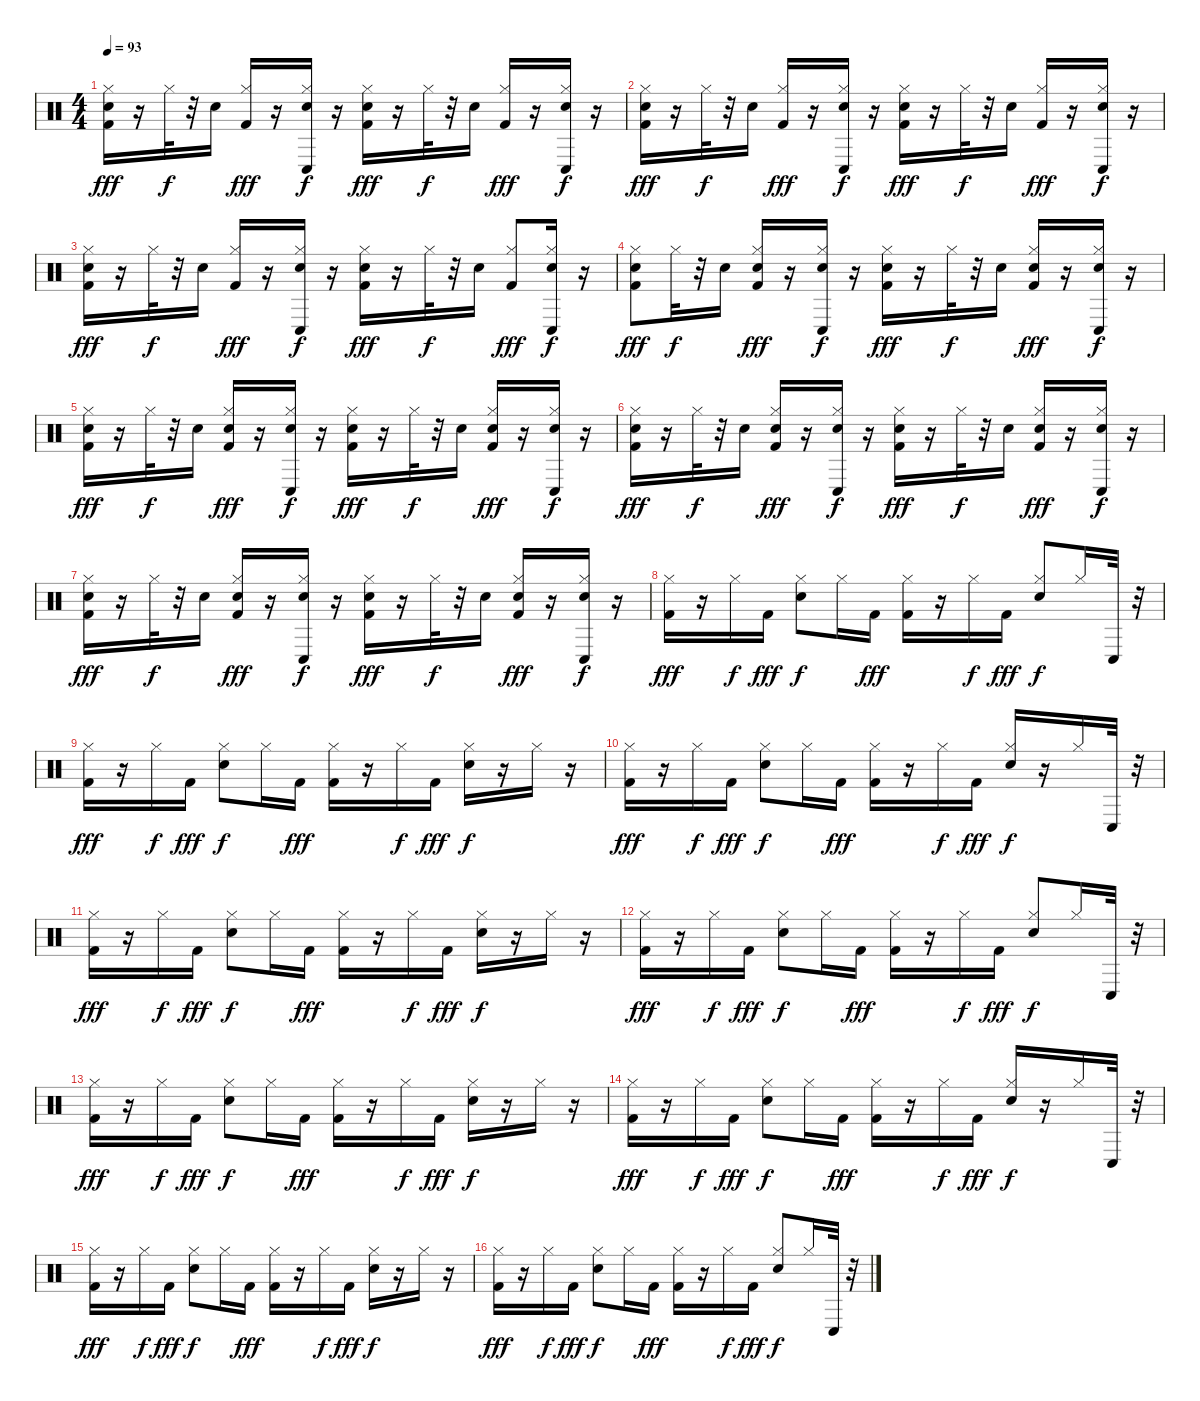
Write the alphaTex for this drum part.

\track "" {instrument percussion}
\staff {score}
\articulation defaults
\ts (4 4)
\tempo 93
\clef neutral
\ks c
("Kick (hit) 2" "Snare (hit) 2" "Hi-Hat (closed)").16{dy fff} r.16 "Hi-Hat (closed)".32{dy f} r.32 "Snare (hit) 2".16 ("Kick (hit) 2" "Hi-Hat (closed)").16{dy fff} r.16 ("Snare (hit) 2" "Hi-Hat (closed)" "Conga low (hit)").16{dy f} r.16 ("Kick (hit) 2" "Snare (hit) 2" "Hi-Hat (closed)").16{dy fff} r.16 "Hi-Hat (closed)".32{dy f} r.32 "Snare (hit) 2".16 ("Kick (hit) 2" "Hi-Hat (closed)").16{dy fff} r.16 ("Conga low (hit)" "Snare (hit) 2" "Hi-Hat (closed)").16{dy f} r.16 |
("Kick (hit) 2" "Snare (hit) 2" "Hi-Hat (closed)").16{dy fff} r.16 "Hi-Hat (closed)".32{dy f} r.32 "Snare (hit) 2".16 ("Kick (hit) 2" "Hi-Hat (closed)").16{dy fff} r.16 ("Snare (hit) 2" "Hi-Hat (closed)" "Conga low (hit)").16{dy f} r.16 ("Hi-Hat (closed)" "Kick (hit) 2" "Snare (hit) 2").16{dy fff} r.16 "Hi-Hat (closed)".32{dy f} r.32 "Snare (hit) 2".16 ("Hi-Hat (closed)" "Kick (hit) 2").16{dy fff} r.16 ("Hi-Hat (closed)" "Snare (hit) 2" "Conga low (hit)").16{dy f} r.16 |
("Kick (hit) 2" "Snare (hit) 2" "Hi-Hat (closed)").16{dy fff} r.16 "Hi-Hat (closed)".32{dy f} r.32 "Snare (hit) 2".16 ("Hi-Hat (closed)" "Kick (hit) 2").16{dy fff} r.16 ("Hi-Hat (closed)" "Snare (hit) 2" "Conga low (hit)").16{dy f} r.16 ("Kick (hit) 2" "Snare (hit) 2" "Hi-Hat (closed)").16{dy fff} r.16 "Hi-Hat (closed)".32{dy f} r.32 "Snare (hit) 2".16 ("Hi-Hat (closed)" "Kick (hit) 2").8{dy fff} ("Hi-Hat (closed)" "Conga low (hit)" "Snare (hit) 2").16{dy f} r.16 |
("Kick (hit) 2" "Snare (hit) 2" "Hi-Hat (closed)").8{dy fff} "Hi-Hat (closed)".32{dy f} r.32 "Snare (hit) 2".16 ("Hand Clap (hit)" "Kick (hit) 2" "Hi-Hat (closed)").16{dy fff} r.16 ("Snare (hit) 2" "Hi-Hat (closed)" "Conga low (hit)").16{dy f} r.16 ("Kick (hit) 2" "Snare (hit) 2" "Hi-Hat (closed)").16{dy fff} r.16 "Hi-Hat (closed)".32{dy f} r.32 "Snare (hit) 2".16 ("Hand Clap (hit)" "Kick (hit) 2" "Hi-Hat (closed)").16{dy fff} r.16 ("Hi-Hat (closed)" "Snare (hit) 2" "Conga low (hit)").16{dy f} r.16 |
("Kick (hit) 2" "Snare (hit) 2" "Hi-Hat (closed)").16{dy fff} r.16 "Hi-Hat (closed)".32{dy f} r.32 "Snare (hit) 2".16 ("Kick (hit) 2" "Hi-Hat (closed)" "Hand Clap (hit)").16{dy fff} r.16 ("Snare (hit) 2" "Hi-Hat (closed)" "Conga low (hit)").16{dy f} r.16 ("Kick (hit) 2" "Snare (hit) 2" "Hi-Hat (closed)").16{dy fff} r.16 "Hi-Hat (closed)".32{dy f} r.32 "Snare (hit) 2".16 ("Kick (hit) 2" "Hi-Hat (closed)" "Hand Clap (hit)").16{dy fff} r.16 ("Conga low (hit)" "Snare (hit) 2" "Hi-Hat (closed)").16{dy f} r.16 |
("Kick (hit) 2" "Snare (hit) 2" "Hi-Hat (closed)").16{dy fff} r.16 "Hi-Hat (closed)".32{dy f} r.32 "Snare (hit) 2".16 ("Hand Clap (hit)" "Kick (hit) 2" "Hi-Hat (closed)").16{dy fff} r.16 ("Snare (hit) 2" "Hi-Hat (closed)" "Conga low (hit)").16{dy f} r.16 ("Hi-Hat (closed)" "Kick (hit) 2" "Snare (hit) 2").16{dy fff} r.16 "Hi-Hat (closed)".32{dy f} r.32 "Snare (hit) 2".16 ("Hi-Hat (closed)" "Hand Clap (hit)" "Kick (hit) 2").16{dy fff} r.16 ("Hi-Hat (closed)" "Snare (hit) 2" "Conga low (hit)").16{dy f} r.16 |
("Kick (hit) 2" "Snare (hit) 2" "Hi-Hat (closed)").16{dy fff} r.16 "Hi-Hat (closed)".32{dy f} r.32 "Snare (hit) 2".16 ("Hand Clap (hit)" "Hi-Hat (closed)" "Kick (hit) 2").16{dy fff} r.16 ("Hi-Hat (closed)" "Snare (hit) 2" "Conga low (hit)").16{dy f} r.16 ("Kick (hit) 2" "Snare (hit) 2" "Hi-Hat (closed)").16{dy fff} r.16 "Hi-Hat (closed)".32{dy f} r.32 "Snare (hit) 2".16 ("Hand Clap (hit)" "Hi-Hat (closed)" "Kick (hit) 2").16{dy fff} r.16 ("Hi-Hat (closed)" "Conga low (hit)" "Snare (hit) 2").16{dy f} r.16 |
("Kick (hit) 2" "Hi-Hat (closed)").16{dy fff} r.16 "Hi-Hat (closed)".16{dy f} "Kick (hit) 2".16{dy fff} ("Snare (hit) 2" "Hi-Hat (closed)").8{dy f} "Hi-Hat (closed)".16 "Kick (hit) 2".16{dy fff} ("Kick (hit) 2" "Hi-Hat (closed)").16 r.16 "Hi-Hat (closed)".16{dy f} "Kick (hit) 2".16{dy fff} ("Snare (hit) 2" "Hi-Hat (closed)").8{dy f} "Hi-Hat (closed)".16 "Conga low (hit)".32 r.32 |
("Kick (hit) 2" "Hi-Hat (closed)").16{dy fff} r.16 "Hi-Hat (closed)".16{dy f} "Kick (hit) 2".16{dy fff} ("Snare (hit) 2" "Hi-Hat (closed)").8{dy f} "Hi-Hat (closed)".16 "Kick (hit) 2".16{dy fff} ("Kick (hit) 2" "Hi-Hat (closed)").16 r.16 "Hi-Hat (closed)".16{dy f} "Kick (hit) 2".16{dy fff} ("Snare (hit) 2" "Hi-Hat (closed)").16{dy f} r.16 "Hi-Hat (closed)".16 r.16 |
("Kick (hit) 2" "Hi-Hat (closed)").16{dy fff} r.16 "Hi-Hat (closed)".16{dy f} "Kick (hit) 2".16{dy fff} ("Snare (hit) 2" "Hi-Hat (closed)").8{dy f} "Hi-Hat (closed)".16 "Kick (hit) 2".16{dy fff} ("Kick (hit) 2" "Hi-Hat (closed)").16 r.16 "Hi-Hat (closed)".16{dy f} "Kick (hit) 2".16{dy fff} ("Snare (hit) 2" "Hi-Hat (closed)").16{dy f} r.16 "Hi-Hat (closed)".16 "Conga low (hit)".32 r.32 |
("Kick (hit) 2" "Hi-Hat (closed)").16{dy fff} r.16 "Hi-Hat (closed)".16{dy f} "Kick (hit) 2".16{dy fff} ("Snare (hit) 2" "Hi-Hat (closed)").8{dy f} "Hi-Hat (closed)".16 "Kick (hit) 2".16{dy fff} ("Kick (hit) 2" "Hi-Hat (closed)").16 r.16 "Hi-Hat (closed)".16{dy f} "Kick (hit) 2".16{dy fff} ("Snare (hit) 2" "Hi-Hat (closed)").16{dy f} r.16 "Hi-Hat (closed)".16 r.16 |
("Kick (hit) 2" "Hi-Hat (closed)").16{dy fff} r.16 "Hi-Hat (closed)".16{dy f} "Kick (hit) 2".16{dy fff} ("Snare (hit) 2" "Hi-Hat (closed)").8{dy f} "Hi-Hat (closed)".16 "Kick (hit) 2".16{dy fff} ("Kick (hit) 2" "Hi-Hat (closed)").16 r.16 "Hi-Hat (closed)".16{dy f} "Kick (hit) 2".16{dy fff} ("Snare (hit) 2" "Hi-Hat (closed)").8{dy f} "Hi-Hat (closed)".16 "Conga low (hit)".32 r.32 |
("Kick (hit) 2" "Hi-Hat (closed)").16{dy fff} r.16 "Hi-Hat (closed)".16{dy f} "Kick (hit) 2".16{dy fff} ("Snare (hit) 2" "Hi-Hat (closed)").8{dy f} "Hi-Hat (closed)".16 "Kick (hit) 2".16{dy fff} ("Kick (hit) 2" "Hi-Hat (closed)").16 r.16 "Hi-Hat (closed)".16{dy f} "Kick (hit) 2".16{dy fff} ("Snare (hit) 2" "Hi-Hat (closed)").16{dy f} r.16 "Hi-Hat (closed)".16 r.16 |
("Kick (hit) 2" "Hi-Hat (closed)").16{dy fff} r.16 "Hi-Hat (closed)".16{dy f} "Kick (hit) 2".16{dy fff} ("Snare (hit) 2" "Hi-Hat (closed)").8{dy f} "Hi-Hat (closed)".16 "Kick (hit) 2".16{dy fff} ("Kick (hit) 2" "Hi-Hat (closed)").16 r.16 "Hi-Hat (closed)".16{dy f} "Kick (hit) 2".16{dy fff} ("Snare (hit) 2" "Hi-Hat (closed)").16{dy f} r.16 "Hi-Hat (closed)".16 "Conga low (hit)".32 r.32 |
("Kick (hit) 2" "Hi-Hat (closed)").16{dy fff} r.16 "Hi-Hat (closed)".16{dy f} "Kick (hit) 2".16{dy fff} ("Snare (hit) 2" "Hi-Hat (closed)").8{dy f} "Hi-Hat (closed)".16 "Kick (hit) 2".16{dy fff} ("Kick (hit) 2" "Hi-Hat (closed)").16 r.16 "Hi-Hat (closed)".16{dy f} "Kick (hit) 2".16{dy fff} ("Snare (hit) 2" "Hi-Hat (closed)").16{dy f} r.16 "Hi-Hat (closed)".16 r.16 |
("Kick (hit) 2" "Hi-Hat (closed)").16{dy fff} r.16 "Hi-Hat (closed)".16{dy f} "Kick (hit) 2".16{dy fff} ("Snare (hit) 2" "Hi-Hat (closed)").8{dy f} "Hi-Hat (closed)".16 "Kick (hit) 2".16{dy fff} ("Kick (hit) 2" "Hi-Hat (closed)").16 r.16 "Hi-Hat (closed)".16{dy f} "Kick (hit) 2".16{dy fff} ("Snare (hit) 2" "Hi-Hat (closed)").8{dy f} "Hi-Hat (closed)".16 "Conga low (hit)".32 r.32
